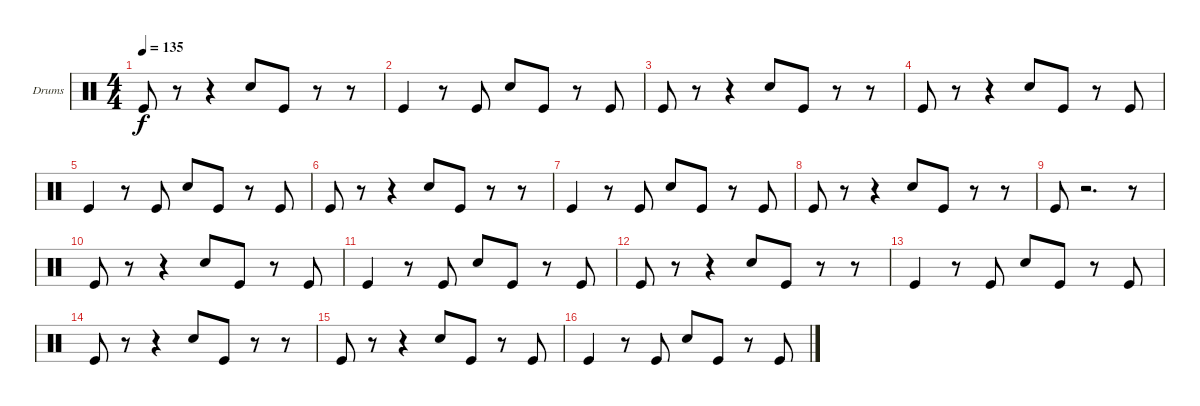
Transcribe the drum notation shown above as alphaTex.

\bracketExtendMode groupsimilarinstruments
\firstSystemTrackNameOrientation horizontal
\otherSystemsTrackNameOrientation horizontal
\track ("Drumkit" "Drums") {instrument percussion}
\staff {score}
\articulation defaults
\ts (4 4)
\tempo 135
\clef neutral
\ks c "Kick (hit)".8{dy f}
r.8 r.4 "Snare (hit) 2".8 "Kick (hit)".8 r.8 r.8 |
"Kick (hit)".4 r.8 "Kick (hit)".8 "Snare (hit) 2".8 "Kick (hit)".8 r.8 "Kick (hit)".8 |
"Kick (hit)".8 r.8 r.4 "Snare (hit) 2".8 "Kick (hit)".8 r.8 r.8 |
"Kick (hit)".8 r.8 r.4 "Snare (hit) 2".8 "Kick (hit)".8 r.8 "Kick (hit)".8 |
"Kick (hit)".4 r.8 "Kick (hit)".8 "Snare (hit) 2".8 "Kick (hit)".8 r.8 "Kick (hit)".8 |
"Kick (hit)".8 r.8 r.4 "Snare (hit) 2".8 "Kick (hit)".8 r.8 r.8 |
"Kick (hit)".4 r.8 "Kick (hit)".8 "Snare (hit) 2".8 "Kick (hit)".8 r.8 "Kick (hit)".8 |
"Kick (hit)".8 r.8 r.4 "Snare (hit) 2".8 "Kick (hit)".8 r.8 r.8 |
"Kick (hit)".8 r.2{d} r.8 |
"Kick (hit)".8 r.8 r.4 "Snare (hit) 2".8 "Kick (hit)".8 r.8 "Kick (hit)".8 |
"Kick (hit)".4 r.8 "Kick (hit)".8 "Snare (hit) 2".8 "Kick (hit)".8 r.8 "Kick (hit)".8 |
"Kick (hit)".8 r.8 r.4 "Snare (hit) 2".8 "Kick (hit)".8 r.8 r.8 |
"Kick (hit)".4 r.8 "Kick (hit)".8 "Snare (hit) 2".8 "Kick (hit)".8 r.8 "Kick (hit)".8 |
"Kick (hit)".8 r.8 r.4 "Snare (hit) 2".8 "Kick (hit)".8 r.8 r.8 |
"Kick (hit)".8 r.8 r.4 "Snare (hit) 2".8 "Kick (hit)".8 r.8 "Kick (hit)".8 |
"Kick (hit)".4 r.8 "Kick (hit)".8 "Snare (hit) 2".8 "Kick (hit)".8 r.8 "Kick (hit)".8
